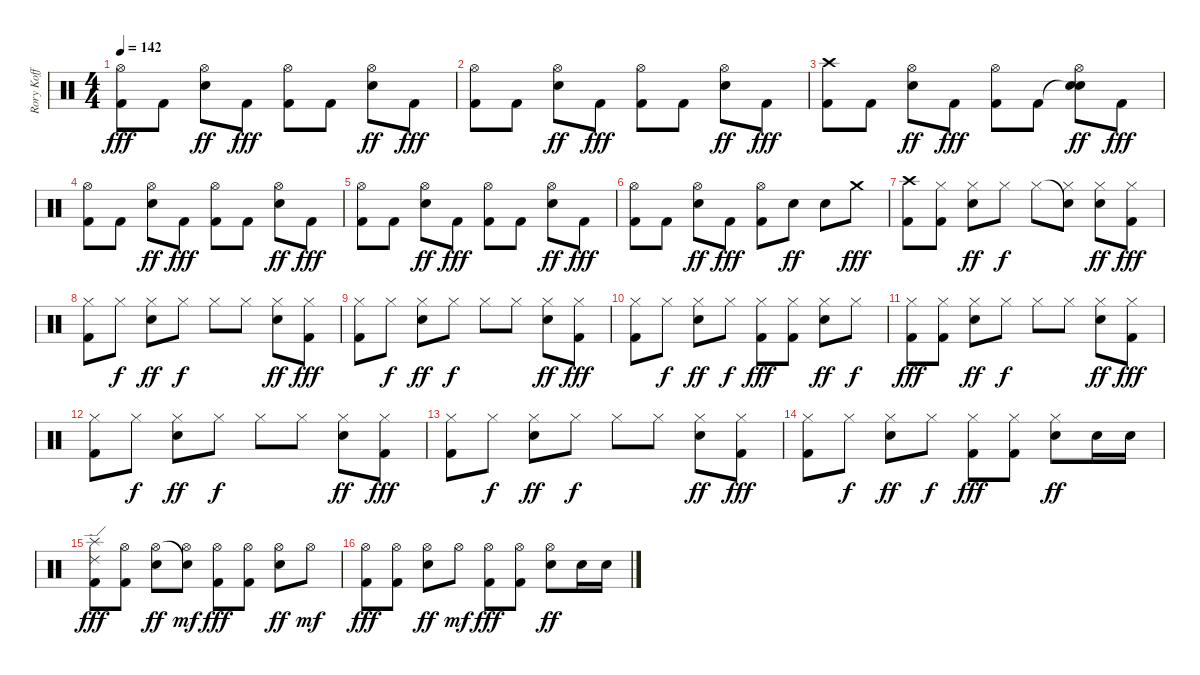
\track ("Rory Koff" "Rory Koff") {instrument percussion}
\staff {score}
\articulation defaults
\ts (4 4)
\tempo 142
\clef neutral
\ks c
("Hi-Hat (open)" "Kick (hit) 2").8{dy fff} "Kick (hit) 2".8 ("Hi-Hat (open)" "Electric Snare (hit)").8{dy ff} "Kick (hit) 2".8{dy fff} ("Hi-Hat (open)" "Kick (hit) 2").8 "Kick (hit) 2".8 ("Hi-Hat (open)" "Electric Snare (hit)").8{dy ff} "Kick (hit) 2".8{dy fff} |
("Hi-Hat (open)" "Kick (hit) 2").8 "Kick (hit) 2".8 ("Hi-Hat (open)" "Electric Snare (hit)").8{dy ff} "Kick (hit) 2".8{dy fff} ("Hi-Hat (open)" "Kick (hit) 2").8 "Kick (hit) 2".8 ("Hi-Hat (open)" "Electric Snare (hit)").8{dy ff} "Kick (hit) 2".8{dy fff} |
("Crash high (hit)" "Kick (hit) 2").8 "Kick (hit) 2".8 ("Hi-Hat (open)" "Electric Snare (hit)").8{dy ff} "Kick (hit) 2".8{dy fff} ("Hi-Hat (open)" "Kick (hit) 2").8 "Kick (hit) 2".8 ("Snare (hit)"{t} "Hi-Hat (open)" "Electric Snare (hit)").8{dy ff} "Kick (hit) 2".8{dy fff} |
("Hi-Hat (open)" "Kick (hit) 2").8 "Kick (hit) 2".8 ("Hi-Hat (open)" "Electric Snare (hit)").8{dy ff} "Kick (hit) 2".8{dy fff} ("Hi-Hat (open)" "Kick (hit) 2").8 "Kick (hit) 2".8 ("Hi-Hat (open)" "Electric Snare (hit)").8{dy ff} "Kick (hit) 2".8{dy fff} |
("Hi-Hat (open)" "Kick (hit) 2").8 "Kick (hit) 2".8 ("Hi-Hat (open)" "Electric Snare (hit)").8{dy ff} "Kick (hit) 2".8{dy fff} ("Hi-Hat (open)" "Kick (hit) 2").8 "Kick (hit) 2".8 ("Hi-Hat (open)" "Electric Snare (hit)").8{dy ff} "Kick (hit) 2".8{dy fff} |
("Hi-Hat (open)" "Kick (hit) 2").8 "Kick (hit) 2".8 ("Hi-Hat (open)" "Electric Snare (hit)").8{dy ff} "Kick (hit) 2".8{dy fff} ("Hi-Hat (open)" "Kick (hit) 2").8 "Electric Snare (hit)".8{dy ff} "Electric Snare (hit)".8 "Crash medium (hit)".8{dy fff} |
("Crash high (hit)" "Kick (hit) 2").8 ("Hi-Hat (closed)" "Kick (hit) 2").8 ("Hi-Hat (closed)" "Electric Snare (hit)").8{dy ff} "Hi-Hat (closed)".8{dy f} "Hi-Hat (closed)".8 ("Snare (hit)"{t} "Hi-Hat (closed)").8 ("Hi-Hat (closed)" "Electric Snare (hit)").8{dy ff} ("Hi-Hat (closed)" "Kick (hit) 2").8{dy fff} |
("Hi-Hat (closed)" "Kick (hit) 2").8 "Hi-Hat (closed)".8{dy f} ("Hi-Hat (closed)" "Electric Snare (hit)").8{dy ff} "Hi-Hat (closed)".8{dy f} "Hi-Hat (closed)".8 "Hi-Hat (closed)".8 ("Hi-Hat (closed)" "Electric Snare (hit)").8{dy ff} ("Hi-Hat (closed)" "Kick (hit) 2").8{dy fff} |
("Hi-Hat (closed)" "Kick (hit) 2").8 "Hi-Hat (closed)".8{dy f} ("Hi-Hat (closed)" "Electric Snare (hit)").8{dy ff} "Hi-Hat (closed)".8{dy f} "Hi-Hat (closed)".8 "Hi-Hat (closed)".8 ("Hi-Hat (closed)" "Electric Snare (hit)").8{dy ff} ("Hi-Hat (closed)" "Kick (hit) 2").8{dy fff} |
("Hi-Hat (closed)" "Kick (hit) 2").8 "Hi-Hat (closed)".8{dy f} ("Hi-Hat (closed)" "Electric Snare (hit)").8{dy ff} "Hi-Hat (closed)".8{dy f} ("Hi-Hat (closed)" "Kick (hit) 2").8{dy fff} ("Hi-Hat (closed)" "Kick (hit) 2").8 ("Hi-Hat (closed)" "Electric Snare (hit)").8{dy ff} "Hi-Hat (closed)".8{dy f} |
("Hi-Hat (closed)" "Kick (hit) 2").8{dy fff} ("Hi-Hat (closed)" "Kick (hit) 2").8 ("Hi-Hat (closed)" "Electric Snare (hit)").8{dy ff} "Hi-Hat (closed)".8{dy f} "Hi-Hat (closed)".8 "Hi-Hat (closed)".8 ("Hi-Hat (closed)" "Electric Snare (hit)").8{dy ff} ("Hi-Hat (closed)" "Kick (hit) 2").8{dy fff} |
("Hi-Hat (closed)" "Kick (hit) 2").8 "Hi-Hat (closed)".8{dy f} ("Hi-Hat (closed)" "Electric Snare (hit)").8{dy ff} "Hi-Hat (closed)".8{dy f} "Hi-Hat (closed)".8 "Hi-Hat (closed)".8 ("Hi-Hat (closed)" "Electric Snare (hit)").8{dy ff} ("Hi-Hat (closed)" "Kick (hit) 2").8{dy fff} |
("Hi-Hat (closed)" "Kick (hit) 2").8 "Hi-Hat (closed)".8{dy f} ("Hi-Hat (closed)" "Electric Snare (hit)").8{dy ff} "Hi-Hat (closed)".8{dy f} "Hi-Hat (closed)".8 "Hi-Hat (closed)".8 ("Hi-Hat (closed)" "Electric Snare (hit)").8{dy ff} ("Hi-Hat (closed)" "Kick (hit) 2").8{dy fff} |
("Hi-Hat (closed)" "Kick (hit) 2").8 "Hi-Hat (closed)".8{dy f} ("Hi-Hat (closed)" "Electric Snare (hit)").8{dy ff} "Hi-Hat (closed)".8{dy f} ("Hi-Hat (closed)" "Kick (hit) 2").8{dy fff} ("Hi-Hat (closed)" "Kick (hit) 2").8 ("Hi-Hat (closed)" "Electric Snare (hit)").8{dy ff} "Electric Snare (hit)".16 "Electric Snare (hit)".16 |
("Splash (hit)" "Ride (edge) 2" "Kick (hit) 2").8{dy fff} ("Hi-Hat (open)" "Kick (hit) 2").8 ("Hi-Hat (open)" "Electric Snare (hit)").8{dy ff} ("Snare (hit)"{t} "Hi-Hat (open)").8{dy mf} ("Hi-Hat (open)" "Kick (hit) 2").8{dy fff} ("Hi-Hat (open)" "Kick (hit) 2").8 ("Hi-Hat (open)" "Electric Snare (hit)").8{dy ff} "Hi-Hat (open)".8{dy mf} |
("Hi-Hat (open)" "Kick (hit) 2").8{dy fff} ("Hi-Hat (open)" "Kick (hit) 2").8 ("Hi-Hat (open)" "Electric Snare (hit)").8{dy ff} "Hi-Hat (open)".8{dy mf} ("Hi-Hat (open)" "Kick (hit) 2").8{dy fff} ("Hi-Hat (open)" "Kick (hit) 2").8 ("Hi-Hat (open)" "Electric Snare (hit)").8{dy ff} "Electric Snare (hit)".16 "Electric Snare (hit)".16
